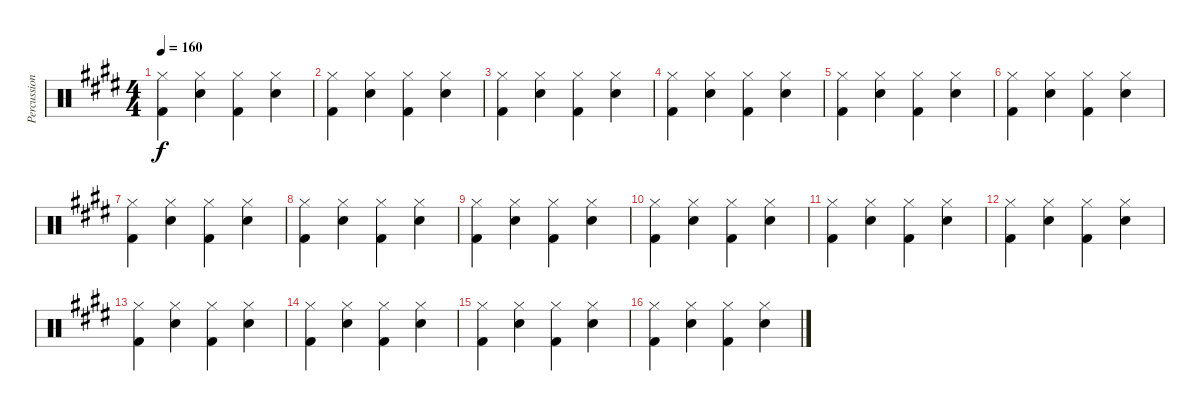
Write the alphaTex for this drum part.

\track ("Percussion" "Percussion") {instrument percussion}
\staff {score}
\articulation defaults
\ts (4 4)
\tempo 160
\clef neutral
\ks e
("Hi-Hat (closed)" "Kick (hit) 2").4{dy f} ("Hi-Hat (closed)" "Snare (hit) 2").4 ("Hi-Hat (closed)" "Kick (hit) 2").4 ("Hi-Hat (closed)" "Snare (hit) 2").4 |
("Hi-Hat (closed)" "Kick (hit) 2").4 ("Hi-Hat (closed)" "Snare (hit) 2").4 ("Hi-Hat (closed)" "Kick (hit) 2").4 ("Hi-Hat (closed)" "Snare (hit) 2").4 |
("Hi-Hat (closed)" "Kick (hit) 2").4 ("Hi-Hat (closed)" "Snare (hit) 2").4 ("Hi-Hat (closed)" "Kick (hit) 2").4 ("Hi-Hat (closed)" "Snare (hit) 2").4 |
("Hi-Hat (closed)" "Kick (hit) 2").4 ("Hi-Hat (closed)" "Snare (hit) 2").4 ("Hi-Hat (closed)" "Kick (hit) 2").4 ("Hi-Hat (closed)" "Snare (hit) 2").4 |
("Hi-Hat (closed)" "Kick (hit) 2").4 ("Hi-Hat (closed)" "Snare (hit) 2").4 ("Hi-Hat (closed)" "Kick (hit) 2").4 ("Hi-Hat (closed)" "Snare (hit) 2").4 |
("Hi-Hat (closed)" "Kick (hit) 2").4 ("Hi-Hat (closed)" "Snare (hit) 2").4 ("Hi-Hat (closed)" "Kick (hit) 2").4 ("Hi-Hat (closed)" "Snare (hit) 2").4 |
("Hi-Hat (closed)" "Kick (hit) 2").4 ("Hi-Hat (closed)" "Snare (hit) 2").4 ("Hi-Hat (closed)" "Kick (hit) 2").4 ("Hi-Hat (closed)" "Snare (hit) 2").4 |
("Hi-Hat (closed)" "Kick (hit) 2").4 ("Hi-Hat (closed)" "Snare (hit) 2").4 ("Hi-Hat (closed)" "Kick (hit) 2").4 ("Hi-Hat (closed)" "Snare (hit) 2").4 |
("Hi-Hat (closed)" "Kick (hit) 2").4 ("Hi-Hat (closed)" "Snare (hit) 2").4 ("Hi-Hat (closed)" "Kick (hit) 2").4 ("Hi-Hat (closed)" "Snare (hit) 2").4 |
("Hi-Hat (closed)" "Kick (hit) 2").4 ("Hi-Hat (closed)" "Snare (hit) 2").4 ("Hi-Hat (closed)" "Kick (hit) 2").4 ("Hi-Hat (closed)" "Snare (hit) 2").4 |
("Hi-Hat (closed)" "Kick (hit) 2").4 ("Hi-Hat (closed)" "Snare (hit) 2").4 ("Hi-Hat (closed)" "Kick (hit) 2").4 ("Hi-Hat (closed)" "Snare (hit) 2").4 |
("Hi-Hat (closed)" "Kick (hit) 2").4 ("Hi-Hat (closed)" "Snare (hit) 2").4 ("Hi-Hat (closed)" "Kick (hit) 2").4 ("Hi-Hat (closed)" "Snare (hit) 2").4 |
("Hi-Hat (closed)" "Kick (hit) 2").4 ("Hi-Hat (closed)" "Snare (hit) 2").4 ("Hi-Hat (closed)" "Kick (hit) 2").4 ("Hi-Hat (closed)" "Snare (hit) 2").4 |
("Hi-Hat (closed)" "Kick (hit) 2").4 ("Hi-Hat (closed)" "Snare (hit) 2").4 ("Hi-Hat (closed)" "Kick (hit) 2").4 ("Hi-Hat (closed)" "Snare (hit) 2").4 |
("Hi-Hat (closed)" "Kick (hit) 2").4 ("Hi-Hat (closed)" "Snare (hit) 2").4 ("Hi-Hat (closed)" "Kick (hit) 2").4 ("Hi-Hat (closed)" "Snare (hit) 2").4 |
("Hi-Hat (closed)" "Kick (hit) 2").4 ("Hi-Hat (closed)" "Snare (hit) 2").4 ("Hi-Hat (closed)" "Kick (hit) 2").4 ("Hi-Hat (closed)" "Snare (hit) 2").4
